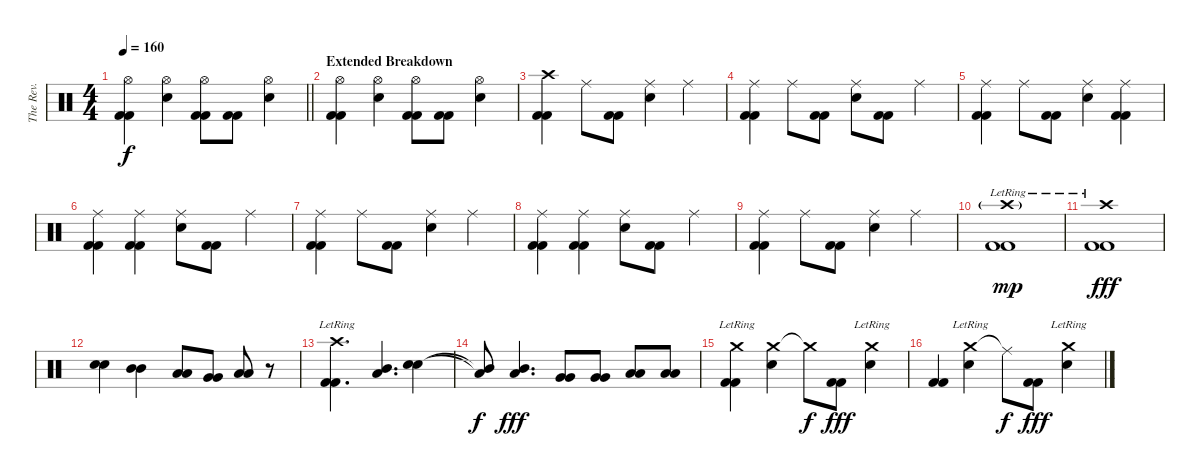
\track ("The Rev." "The Rev.") {instrument percussion}
\staff {score}
\articulation defaults
\ts (4 4)
\tempo 160
\clef neutral
\barLineRight lightlight
\ks c
("Hi-Hat (open)" "Kick (hit) 2" "Kick (hit) 2").4{dy f} ("Hi-Hat (open)" "Electric Snare (hit)").4 ("Hi-Hat (open)" "Kick (hit) 2" "Kick (hit) 2").8 ("Kick (hit) 2" "Kick (hit) 2").8 ("Hi-Hat (open)" "Electric Snare (hit)").4 |
\section ("" "Extended Breakdown ")
("Hi-Hat (open)" "Kick (hit) 2" "Kick (hit) 2").4 ("Hi-Hat (open)" "Electric Snare (hit)").4 ("Hi-Hat (open)" "Kick (hit) 2" "Kick (hit) 2").8 ("Kick (hit) 2" "Kick (hit) 2").8 ("Hi-Hat (open)" "Electric Snare (hit)").4 |
("Crash high (hit)" "Kick (hit) 2" "Kick (hit) 2").4 "Ride (middle)".8 ("Kick (hit) 2" "Kick (hit) 2").8 ("Ride (middle)" "Electric Snare (hit)").4 "Ride (middle)".4 |
("Ride (middle)" "Kick (hit) 2" "Kick (hit) 2").4 "Ride (middle)".8 ("Kick (hit) 2" "Kick (hit) 2").8 ("Ride (middle)" "Electric Snare (hit)").8 ("Kick (hit) 2" "Kick (hit) 2").8 "Ride (middle)".4 |
("Ride (middle)" "Kick (hit) 2" "Kick (hit) 2").4 "Ride (middle)".8 ("Kick (hit) 2" "Kick (hit) 2").8 ("Ride (middle)" "Electric Snare (hit)").4 ("Ride (middle)" "Kick (hit) 2" "Kick (hit) 2").4 |
("Ride (middle)" "Kick (hit) 2" "Kick (hit) 2").4 ("Ride (middle)" "Kick (hit) 2" "Kick (hit) 2").4 ("Ride (middle)" "Electric Snare (hit)").8 ("Kick (hit) 2" "Kick (hit) 2").8 "Ride (middle)".4 |
("Ride (middle)" "Kick (hit) 2" "Kick (hit) 2").4 "Ride (middle)".8 ("Kick (hit) 2" "Kick (hit) 2").8 ("Ride (middle)" "Electric Snare (hit)").4 "Ride (middle)".4 |
("Ride (middle)" "Kick (hit) 2" "Kick (hit) 2").4 ("Ride (middle)" "Kick (hit) 2" "Kick (hit) 2").4 ("Ride (middle)" "Electric Snare (hit)").8 ("Kick (hit) 2" "Kick (hit) 2").8 "Ride (middle)".4 |
("Ride (middle)" "Kick (hit) 2" "Kick (hit) 2").4 "Ride (middle)".8 ("Kick (hit) 2" "Kick (hit) 2").8 ("Ride (middle)" "Electric Snare (hit)").4 "Ride (middle)".4 |
("Crash high (hit)"{g} "Kick (hit) 2" "Kick (hit) 2"{lr}).1{dy mp} |
("Crash high (hit)"{lr} "Kick (hit) 2" "Kick (hit) 2").1{dy fff} |
("Electric Snare (hit)" "Electric Snare (hit)").4 ("Mid Tom (hit)" "Mid Tom (hit)").4 ("Low Tom (hit)" "Low Tom (hit)").8 ("Very Low Tom (hit)" "Very Low Tom (hit)").8 ("Low Floor Tom (hit)" "Low Floor Tom (hit)").8 r.8 |
("Crash high (hit)"{lr} "Kick (hit) 2" "Kick (hit) 2").4{d} ("Mid Tom (hit)" "Low Tom (hit)").4{d} ("Electric Snare (hit)" "Electric Snare (hit)").4 |
("Mid Tom (hit)"{t} "Low Tom (hit)"{t}).8{dy f} ("Mid Tom (hit)" "Low Tom (hit)").4{d dy fff} ("Very Low Tom (hit)" "Very Low Tom (hit)").8 ("Very Low Tom (hit)" "Very Low Tom (hit)").8 ("Low Floor Tom (hit)" "Low Floor Tom (hit)").8 ("Low Floor Tom (hit)" "Low Floor Tom (hit)").8 |
("Crash medium (hit)"{lr} "Kick (hit) 2" "Kick (hit) 2").4 ("Crash medium (hit)" "Electric Snare (hit)").4 "Crash medium (hit)"{t}.8{dy f} ("Kick (hit) 2" "Kick (hit) 2").8{dy fff} ("Crash medium (hit)"{lr} "Electric Snare (hit)").4 |
("Kick (hit) 2" "Kick (hit) 2").4 ("Crash medium (hit)"{lr} "Electric Snare (hit)").4 "Ride (middle)"{t}.8{dy f} ("Kick (hit) 2" "Kick (hit) 2").8{dy fff} ("Crash medium (hit)"{lr} "Electric Snare (hit)").4
